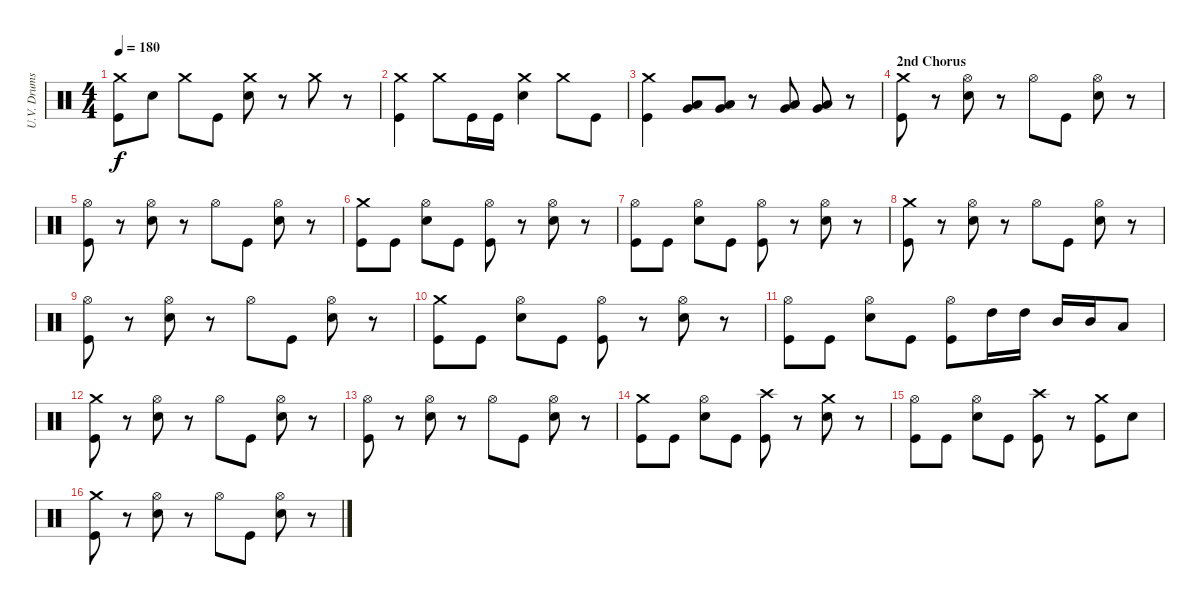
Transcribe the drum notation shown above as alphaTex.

\track ("U.V. Drums" "U.V. Drums") {instrument percussion}
\staff {score}
\articulation defaults
\ts (4 4)
\tempo 180
\clef neutral
\ks c
("Crash medium (hit)" "Kick (hit)").8{dy f} "Electric Snare (hit)".8 "Crash medium (hit)".8 "Kick (hit)".8 ("Crash medium (hit)" "Electric Snare (hit)").8 r.8 "Crash medium (hit)".8 r.8 |
("Crash medium (hit)" "Kick (hit)").4 "Crash medium (hit)".8 "Kick (hit)".16 "Kick (hit)".16 ("Crash medium (hit)" "Electric Snare (hit)").4 "Crash medium (hit)".8 "Kick (hit)".8 |
("Crash medium (hit)" "Kick (hit)").4 ("Low Tom (hit)" "Very Low Tom (hit)").8 ("Low Tom (hit)" "Very Low Tom (hit)").8 r.8 ("Low Tom (hit)" "Very Low Tom (hit)").8 ("Low Tom (hit)" "Very Low Tom (hit)").8 r.8 |
\section ("" "2nd Chorus")
("Crash medium (hit)" "Kick (hit)").8 r.8 ("Hi-Hat (open)" "Electric Snare (hit)").8 r.8 "Hi-Hat (open)".8 "Kick (hit)".8 ("Hi-Hat (open)" "Electric Snare (hit)").8 r.8 |
("Hi-Hat (open)" "Kick (hit)").8 r.8 ("Hi-Hat (open)" "Electric Snare (hit)").8 r.8 "Hi-Hat (open)".8 "Kick (hit)".8 ("Hi-Hat (open)" "Electric Snare (hit)").8 r.8 |
("Crash medium (hit)" "Kick (hit)").8 "Kick (hit)".8 ("Hi-Hat (open)" "Electric Snare (hit)").8 "Kick (hit)".8 ("Hi-Hat (open)" "Kick (hit)").8 r.8 ("Hi-Hat (open)" "Electric Snare (hit)").8 r.8 |
("Hi-Hat (open)" "Kick (hit)").8 "Kick (hit)".8 ("Hi-Hat (open)" "Electric Snare (hit)").8 "Kick (hit)".8 ("Hi-Hat (open)" "Kick (hit)").8 r.8 ("Hi-Hat (open)" "Electric Snare (hit)").8 r.8 |
("Crash medium (hit)" "Kick (hit)").8 r.8 ("Hi-Hat (open)" "Electric Snare (hit)").8 r.8 "Hi-Hat (open)".8 "Kick (hit)".8 ("Hi-Hat (open)" "Electric Snare (hit)").8 r.8 |
("Hi-Hat (open)" "Kick (hit)").8 r.8 ("Hi-Hat (open)" "Electric Snare (hit)").8 r.8 "Hi-Hat (open)".8 "Kick (hit)".8 ("Hi-Hat (open)" "Electric Snare (hit)").8 r.8 |
("Crash medium (hit)" "Kick (hit)").8 "Kick (hit)".8 ("Hi-Hat (open)" "Electric Snare (hit)").8 "Kick (hit)".8 ("Hi-Hat (open)" "Kick (hit)").8 r.8 ("Hi-Hat (open)" "Electric Snare (hit)").8 r.8 |
("Hi-Hat (open)" "Kick (hit)").8 "Kick (hit)".8 ("Hi-Hat (open)" "Electric Snare (hit)").8 "Kick (hit)".8 ("Hi-Hat (open)" "Kick (hit)").8 "High Tom (hit)".16 "High Tom (hit)".16 "Mid Tom (hit)".16 "Mid Tom (hit)".16 "Low Tom (hit)".8 |
("Crash medium (hit)" "Kick (hit)").8 r.8 ("Hi-Hat (open)" "Electric Snare (hit)").8 r.8 "Hi-Hat (open)".8 "Kick (hit)".8 ("Hi-Hat (open)" "Electric Snare (hit)").8 r.8 |
("Hi-Hat (open)" "Kick (hit)").8 r.8 ("Hi-Hat (open)" "Electric Snare (hit)").8 r.8 "Hi-Hat (open)".8 "Kick (hit)".8 ("Hi-Hat (open)" "Electric Snare (hit)").8 r.8 |
("Crash medium (hit)" "Kick (hit)").8 "Kick (hit)".8 ("Hi-Hat (open)" "Electric Snare (hit)").8 "Kick (hit)".8 ("Crash high (hit)" "Kick (hit)").8 r.8 ("Crash medium (hit)" "Electric Snare (hit)").8 r.8 |
("Hi-Hat (open)" "Kick (hit)").8 "Kick (hit)".8 ("Hi-Hat (open)" "Electric Snare (hit)").8 "Kick (hit)".8 ("Crash high (hit)" "Kick (hit)").8 r.8 ("Crash medium (hit)" "Kick (hit)").8 "Electric Snare (hit)".8 |
("Crash medium (hit)" "Kick (hit)").8 r.8 ("Hi-Hat (open)" "Electric Snare (hit)").8 r.8 "Hi-Hat (open)".8 "Kick (hit)".8 ("Hi-Hat (open)" "Electric Snare (hit)").8 r.8
